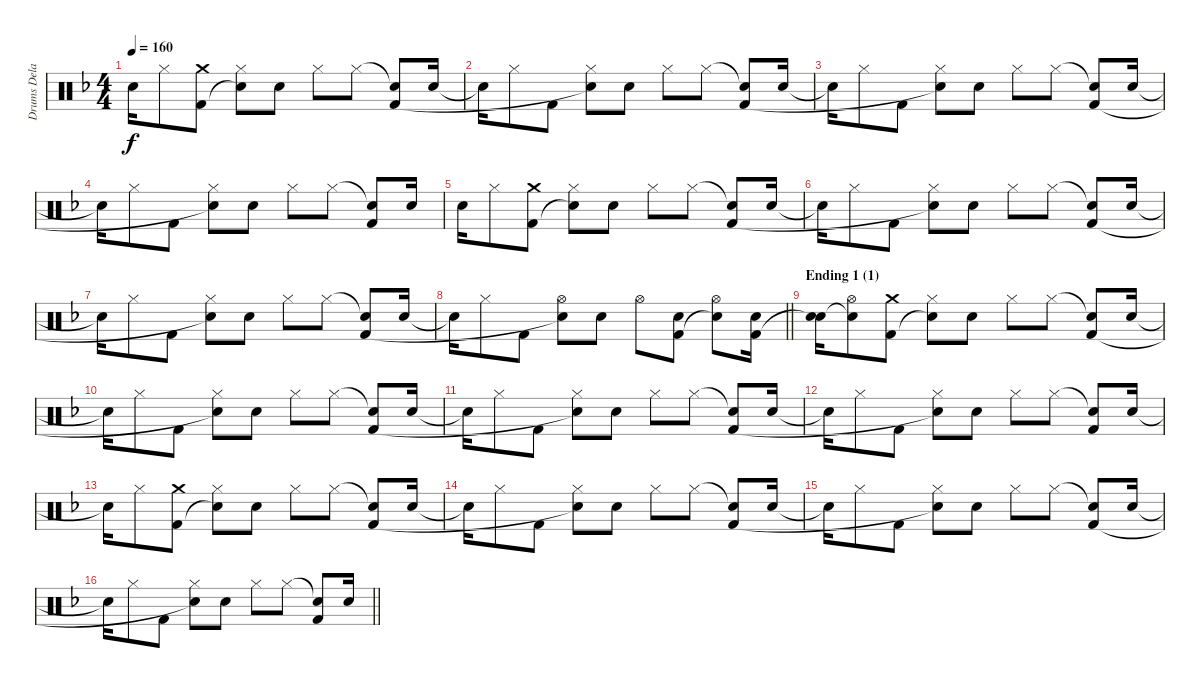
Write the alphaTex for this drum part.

\track ("Drums Delay 2" "Drums Dela") {instrument percussion}
\staff {score}
\articulation defaults
\ts (4 4)
\tempo 160
\clef neutral
\ks f "Electric Snare (hit)".16{dy f} "Hi-Hat (closed)".8
("Crash medium (hit)" "Kick (hit) 2").8 ("Hi-Hat (closed)" "Snare (hit)"{t}).8 "Electric Snare (hit)".8 "Hi-Hat (closed)".8 "Hi-Hat (closed)".8 ("Snare (hit)"{t} "Kick (hit) 2").8 "Electric Snare (hit)".16 |
"Snare (hit)"{t}.16 "Hi-Hat (closed)".8 "Kick (hit) 2".8 ("Hi-Hat (closed)" "Snare (hit)"{t}).8 "Electric Snare (hit)".8 "Hi-Hat (closed)".8 "Hi-Hat (closed)".8 ("Snare (hit)"{t} "Kick (hit) 2").8 "Electric Snare (hit)".16 |
"Snare (hit)"{t}.16 "Hi-Hat (closed)".8 "Kick (hit) 2".8 ("Hi-Hat (closed)" "Snare (hit)"{t}).8 "Electric Snare (hit)".8 "Hi-Hat (closed)".8 "Hi-Hat (closed)".8 ("Snare (hit)"{t} "Kick (hit) 2").8 "Electric Snare (hit)".16 |
"Snare (hit)"{t}.16 "Hi-Hat (closed)".8 "Kick (hit) 2".8 ("Hi-Hat (closed)" "Snare (hit)"{t}).8 "Electric Snare (hit)".8 "Hi-Hat (closed)".8 "Hi-Hat (closed)".8 ("Snare (hit)"{t} "Kick (hit) 2").8 "Electric Snare (hit)".16 |
"Electric Snare (hit)".16 "Hi-Hat (closed)".8 ("Crash medium (hit)" "Kick (hit) 2").8 ("Hi-Hat (closed)" "Snare (hit)"{t}).8 "Electric Snare (hit)".8 "Hi-Hat (closed)".8 "Hi-Hat (closed)".8 ("Snare (hit)"{t} "Kick (hit) 2").8 "Electric Snare (hit)".16 |
"Snare (hit)"{t}.16 "Hi-Hat (closed)".8 "Kick (hit) 2".8 ("Hi-Hat (closed)" "Snare (hit)"{t}).8 "Electric Snare (hit)".8 "Hi-Hat (closed)".8 "Hi-Hat (closed)".8 ("Snare (hit)"{t} "Kick (hit) 2").8 "Electric Snare (hit)".16 |
"Snare (hit)"{t}.16 "Hi-Hat (closed)".8 "Kick (hit) 2".8 ("Hi-Hat (closed)" "Snare (hit)"{t}).8 "Electric Snare (hit)".8 "Hi-Hat (closed)".8 "Hi-Hat (closed)".8 ("Snare (hit)"{t} "Kick (hit) 2").8 "Electric Snare (hit)".16 |
\barLineRight lightlight "Snare (hit)"{t}.16 "Hi-Hat (closed)".8 "Kick (hit) 2".8
("Hi-Hat (open)" "Snare (hit)"{t}).8 "Electric Snare (hit)".8 "Hi-Hat (open)".8 ("Electric Snare (hit)" "Kick (hit) 2").8 ("Hi-Hat (open)" "Snare (hit)"{t}).8 ("Electric Snare (hit)" "Kick (hit) 2").16 |
\section ("" "Ending 1 (1)")
("Electric Snare (hit)" "Snare (hit)"{t}).16 ("Hi-Hat (open)" "Snare (hit)"{t}).8 ("Crash medium (hit)" "Kick (hit) 2").8 ("Hi-Hat (closed)" "Snare (hit)"{t}).8 "Electric Snare (hit)".8 "Hi-Hat (closed)".8 "Hi-Hat (closed)".8 ("Snare (hit)"{t} "Kick (hit) 2").8 "Electric Snare (hit)".16 |
"Electric Snare (hit)"{t}.16 "Hi-Hat (closed)".8 "Kick (hit) 2".8 ("Hi-Hat (closed)" "Snare (hit)"{t}).8 "Electric Snare (hit)".8 "Hi-Hat (closed)".8 "Hi-Hat (closed)".8 ("Snare (hit)"{t} "Kick (hit) 2").8 "Electric Snare (hit)".16 |
"Electric Snare (hit)"{t}.16 "Hi-Hat (closed)".8 "Kick (hit) 2".8 ("Hi-Hat (closed)" "Snare (hit)"{t}).8 "Electric Snare (hit)".8 "Hi-Hat (closed)".8 "Hi-Hat (closed)".8 ("Snare (hit)"{t} "Kick (hit) 2").8 "Electric Snare (hit)".16 |
"Electric Snare (hit)"{t}.16 "Hi-Hat (closed)".8 "Kick (hit) 2".8 ("Hi-Hat (closed)" "Snare (hit)"{t}).8 "Electric Snare (hit)".8 "Hi-Hat (closed)".8 "Hi-Hat (closed)".8 ("Snare (hit)"{t} "Kick (hit) 2").8 "Electric Snare (hit)".16 |
"Electric Snare (hit)"{t}.16 "Hi-Hat (closed)".8 ("Crash medium (hit)" "Kick (hit) 2").8 ("Hi-Hat (closed)" "Snare (hit)"{t}).8 "Electric Snare (hit)".8 "Hi-Hat (closed)".8 "Hi-Hat (closed)".8 ("Snare (hit)"{t} "Kick (hit) 2").8 "Electric Snare (hit)".16 |
"Electric Snare (hit)"{t}.16 "Hi-Hat (closed)".8 "Kick (hit) 2".8 ("Hi-Hat (closed)" "Snare (hit)"{t}).8 "Electric Snare (hit)".8 "Hi-Hat (closed)".8 "Hi-Hat (closed)".8 ("Snare (hit)"{t} "Kick (hit) 2").8 "Electric Snare (hit)".16 |
"Electric Snare (hit)"{t}.16 "Hi-Hat (closed)".8 "Kick (hit) 2".8 ("Hi-Hat (closed)" "Snare (hit)"{t}).8 "Electric Snare (hit)".8 "Hi-Hat (closed)".8 "Hi-Hat (closed)".8 ("Snare (hit)"{t} "Kick (hit) 2").8 "Electric Snare (hit)".16 |
\barLineRight lightlight "Electric Snare (hit)"{t}.16 "Hi-Hat (closed)".8 "Kick (hit) 2".8
("Hi-Hat (closed)" "Snare (hit)"{t}).8 "Electric Snare (hit)".8 "Hi-Hat (closed)".8 "Hi-Hat (closed)".8 ("Snare (hit)"{t} "Kick (hit) 2").8 "Electric Snare (hit)".16
